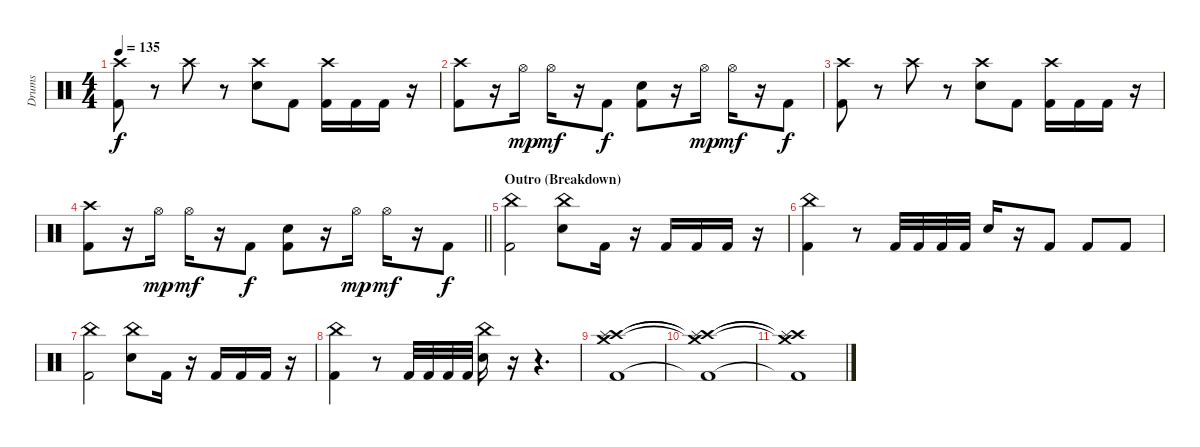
\track ("Drums" "Drums") {instrument percussion}
\staff {score}
\articulation defaults
\ts (4 4)
\tempo 135
\clef neutral
\ks c
("Crash high (hit)" "Kick (hit) 2").8{dy f} r.8 "Crash high (hit)".8 r.8 ("Crash high (hit)" "Snare (hit) 2").8 "Kick (hit) 2".8 ("Crash high (hit)" "Kick (hit) 2").16 "Kick (hit) 2".16 "Kick (hit) 2".16 r.16 |
("Crash high (hit)" "Kick (hit) 2").8 r.16 "Hi-Hat (open)".16{dy mp} "Hi-Hat (open)".16{dy mf} r.16 "Kick (hit) 2".8{dy f} ("Snare (hit) 2" "Kick (hit) 2").8 r.16 "Hi-Hat (open)".16{dy mp} "Hi-Hat (open)".16{dy mf} r.16 "Kick (hit) 2".8{dy f} |
("Crash high (hit)" "Kick (hit) 2").8 r.8 "Crash high (hit)".8 r.8 ("Crash high (hit)" "Snare (hit) 2").8 "Kick (hit) 2".8 ("Crash high (hit)" "Kick (hit) 2").16 "Kick (hit) 2".16 "Kick (hit) 2".16 r.16 |
\barLineRight lightlight
("Crash high (hit)" "Kick (hit) 2").8 r.16 "Hi-Hat (open)".16{dy mp} "Hi-Hat (open)".16{dy mf} r.16 "Kick (hit) 2".8{dy f} ("Snare (hit) 2" "Kick (hit) 2").8 r.16 "Hi-Hat (open)".16{dy mp} "Hi-Hat (open)".16{dy mf} r.16 "Kick (hit) 2".8{dy f} |
\section ("" "Outro (Breakdown)")
("China (hit)" "Kick (hit) 2").2 ("China (hit)" "Snare (hit) 2").8 "Kick (hit) 2".16 r.16 "Kick (hit) 2".16 "Kick (hit) 2".16 "Kick (hit) 2".16 r.16 |
("China (hit)" "Kick (hit) 2").4 r.8 "Kick (hit) 2".32 "Kick (hit) 2".32 "Kick (hit) 2".32 "Kick (hit) 2".32 "Snare (hit) 2".16 r.16 "Kick (hit) 2".8 "Kick (hit) 2".8 "Kick (hit) 2".8 |
("China (hit)" "Kick (hit) 2").2 ("China (hit)" "Snare (hit) 2").8 "Kick (hit) 2".16 r.16 "Kick (hit) 2".16 "Kick (hit) 2".16 "Kick (hit) 2".16 r.16 |
("China (hit)" "Kick (hit) 2").4 r.8 "Kick (hit) 2".32 "Kick (hit) 2".32 "Kick (hit) 2".32 "Kick (hit) 2".32 ("China (hit)" "Snare (hit) 2").16 r.16 r.4{d} |
("Crash medium (hit)" "Crash high (hit)" "Splash (hit)" "Kick (hit) 2").1 |
("Crash medium (hit)"{t} "Crash high (hit)"{t} "Splash (hit)"{t} "Kick (hit) 2"{t}).1 |
("Crash medium (hit)"{t} "Crash high (hit)"{t} "Splash (hit)"{t} "Kick (hit) 2"{t}).1
